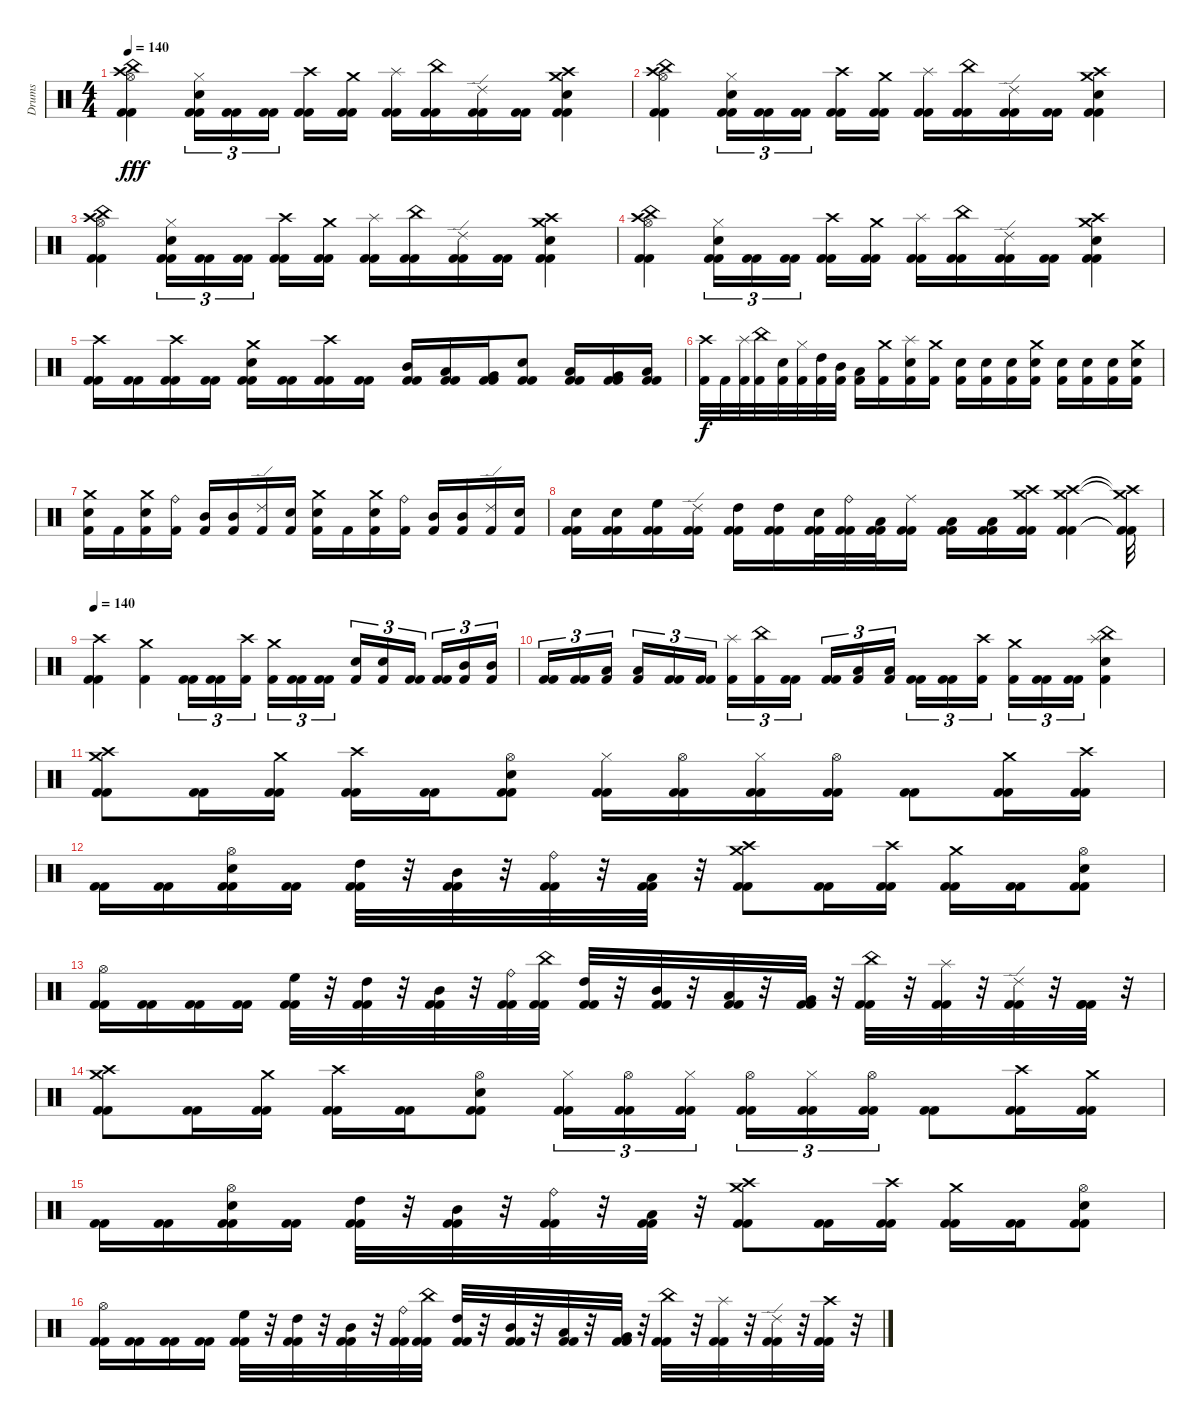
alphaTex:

\track ("Drums" "Drums") {instrument percussion}
\staff {score}
\articulation defaults
\ts (4 4)
\tempo 140
\clef neutral
\ks c
("China (hit)" "Crash high (hit)" "Hi-Hat (open)" "Kick (hit) 2" "Kick (hit) 2").4{dy fff} ("Electric Snare (hit)" "Hi-Hat (closed)" "Kick (hit) 2" "Kick (hit) 2").16{tu (3 2)} ("Kick (hit) 2" "Kick (hit) 2").16{tu (3 2)} ("Kick (hit) 2" "Kick (hit) 2").16{tu (3 2)} ("Crash high (hit)" "Kick (hit) 2" "Kick (hit) 2").16 ("Crash medium (hit)" "Kick (hit) 2" "Kick (hit) 2").16 ("Splash (hit)" "Kick (hit) 2" "Kick (hit) 2").16 ("China (hit)" "Kick (hit) 2" "Kick (hit) 2").16 ("Ride (edge) 2" "Kick (hit) 2" "Kick (hit) 2").16 ("Kick (hit) 2" "Kick (hit) 2").16 ("Electric Snare (hit)" "Crash medium (hit)" "Crash high (hit)" "Kick (hit) 2" "Kick (hit) 2").4 |
("China (hit)" "Crash high (hit)" "Hi-Hat (open)" "Kick (hit) 2" "Kick (hit) 2").4 ("Electric Snare (hit)" "Hi-Hat (closed)" "Kick (hit) 2" "Kick (hit) 2").16{tu (3 2)} ("Kick (hit) 2" "Kick (hit) 2").16{tu (3 2)} ("Kick (hit) 2" "Kick (hit) 2").16{tu (3 2)} ("Crash high (hit)" "Kick (hit) 2" "Kick (hit) 2").16 ("Crash medium (hit)" "Kick (hit) 2" "Kick (hit) 2").16 ("Splash (hit)" "Kick (hit) 2" "Kick (hit) 2").16 ("China (hit)" "Kick (hit) 2" "Kick (hit) 2").16 ("Ride (edge) 2" "Kick (hit) 2" "Kick (hit) 2").16 ("Kick (hit) 2" "Kick (hit) 2").16 ("Electric Snare (hit)" "Crash medium (hit)" "Crash high (hit)" "Kick (hit) 2" "Kick (hit) 2").4 |
("China (hit)" "Crash high (hit)" "Hi-Hat (open)" "Kick (hit) 2" "Kick (hit) 2").4 ("Electric Snare (hit)" "Hi-Hat (closed)" "Kick (hit) 2" "Kick (hit) 2").16{tu (3 2)} ("Kick (hit) 2" "Kick (hit) 2").16{tu (3 2)} ("Kick (hit) 2" "Kick (hit) 2").16{tu (3 2)} ("Crash high (hit)" "Kick (hit) 2" "Kick (hit) 2").16 ("Crash medium (hit)" "Kick (hit) 2" "Kick (hit) 2").16 ("Splash (hit)" "Kick (hit) 2" "Kick (hit) 2").16 ("China (hit)" "Kick (hit) 2" "Kick (hit) 2").16 ("Ride (edge) 2" "Kick (hit) 2" "Kick (hit) 2").16 ("Kick (hit) 2" "Kick (hit) 2").16 ("Electric Snare (hit)" "Crash medium (hit)" "Crash high (hit)" "Kick (hit) 2" "Kick (hit) 2").4 |
("China (hit)" "Crash high (hit)" "Hi-Hat (open)" "Kick (hit) 2" "Kick (hit) 2").4 ("Electric Snare (hit)" "Hi-Hat (closed)" "Kick (hit) 2" "Kick (hit) 2").16{tu (3 2)} ("Kick (hit) 2" "Kick (hit) 2").16{tu (3 2)} ("Kick (hit) 2" "Kick (hit) 2").16{tu (3 2)} ("Crash high (hit)" "Kick (hit) 2" "Kick (hit) 2").16 ("Crash medium (hit)" "Kick (hit) 2" "Kick (hit) 2").16 ("Splash (hit)" "Kick (hit) 2" "Kick (hit) 2").16 ("China (hit)" "Kick (hit) 2" "Kick (hit) 2").16 ("Ride (edge) 2" "Kick (hit) 2" "Kick (hit) 2").16 ("Kick (hit) 2" "Kick (hit) 2").16 ("Electric Snare (hit)" "Crash medium (hit)" "Crash high (hit)" "Kick (hit) 2" "Kick (hit) 2").4 |
("Crash high (hit)" "Kick (hit) 2" "Kick (hit) 2").16 ("Kick (hit) 2" "Kick (hit) 2").16 ("Crash high (hit)" "Kick (hit) 2" "Kick (hit) 2").16 ("Kick (hit) 2" "Kick (hit) 2").16 ("Electric Snare (hit)" "Crash medium (hit)" "Kick (hit) 2" "Kick (hit) 2").16 ("Kick (hit) 2" "Kick (hit) 2").16 ("Crash high (hit)" "Kick (hit) 2" "Kick (hit) 2").16 ("Kick (hit) 2" "Kick (hit) 2").16 ("Mid Tom (hit)" "Kick (hit) 2" "Kick (hit) 2").16 ("Low Tom (hit)" "Kick (hit) 2" "Kick (hit) 2").16 ("Very Low Tom (hit)" "Kick (hit) 2" "Kick (hit) 2").16 ("Electric Snare (hit)" "Kick (hit) 2" "Kick (hit) 2").8 ("Low Tom (hit)" "Kick (hit) 2" "Kick (hit) 2").16 ("Very Low Tom (hit)" "Kick (hit) 2" "Kick (hit) 2").16 ("Low Floor Tom (hit)" "Kick (hit) 2" "Kick (hit) 2").16 |
("Kick (hit) 2" "Crash high (hit)").32{dy f} "Kick (hit) 2".32 ("Kick (hit) 2" "Splash (hit)").32 ("Kick (hit) 2" "China (hit)").32 ("Kick (hit) 2" "Electric Snare (hit)").32 ("Kick (hit) 2" "Hi-Hat (closed)").32 ("Kick (hit) 2" "High Tom (hit)").32 ("Kick (hit) 2" "Mid Tom (hit)").32 ("Kick (hit) 2" "Low Tom (hit)").16 ("Kick (hit) 2" "Crash medium (hit)").16 ("Kick (hit) 2" "Electric Snare (hit)" "Splash (hit)").16 ("Kick (hit) 2" "Crash medium (hit)").16 ("Kick (hit) 2" "Electric Snare (hit)").16 ("Kick (hit) 2" "Electric Snare (hit)").16 ("Kick (hit) 2" "Electric Snare (hit)").16 ("Kick (hit) 2" "Electric Snare (hit)" "Crash medium (hit)").16 ("Kick (hit) 2" "Electric Snare (hit)").16 ("Kick (hit) 2" "Electric Snare (hit)").16 ("Kick (hit) 2" "Electric Snare (hit)").16 ("Kick (hit) 2" "Electric Snare (hit)" "Crash medium (hit)").16 |
("Crash medium (hit)" "Electric Snare (hit)" "Kick (hit) 2").16 "Kick (hit) 2".16 ("Crash medium (hit)" "Electric Snare (hit)" "Kick (hit) 2").16 ("Ride (bell)" "Kick (hit) 2").16 ("Mid Tom (hit)" "Kick (hit) 2").16 ("Mid Tom (hit)" "Kick (hit) 2").16 ("Ride (edge) 2" "Kick (hit) 2").16 ("Electric Snare (hit)" "Kick (hit) 2").16 ("Crash medium (hit)" "Electric Snare (hit)" "Kick (hit) 2").16 "Kick (hit) 2".16 ("Crash medium (hit)" "Electric Snare (hit)" "Kick (hit) 2").16 ("Ride (bell)" "Kick (hit) 2").16 ("Mid Tom (hit)" "Kick (hit) 2").16 ("Mid Tom (hit)" "Kick (hit) 2").16 ("Ride (edge) 2" "Kick (hit) 2").16 ("Electric Snare (hit)" "Kick (hit) 2").16 |
("Electric Snare (hit)" "Kick (hit) 2" "Kick (hit) 2").16 ("Electric Snare (hit)" "Kick (hit) 2" "Kick (hit) 2").16 ("High Floor Tom (hit)" "Kick (hit) 2" "Kick (hit) 2").16 ("Ride (edge) 2" "Kick (hit) 2" "Kick (hit) 2").16 ("High Tom (hit)" "Kick (hit) 2" "Kick (hit) 2").16 ("High Tom (hit)" "Kick (hit) 2" "Kick (hit) 2").16 ("Electric Snare (hit)" "Kick (hit) 2" "Kick (hit) 2").32 ("Ride (bell)" "Kick (hit) 2" "Kick (hit) 2").32 ("Low Floor Tom (hit)" "Kick (hit) 2" "Kick (hit) 2").32 ("Ride (middle)" "Kick (hit) 2" "Kick (hit) 2").16 ("Low Floor Tom (hit)" "Kick (hit) 2" "Kick (hit) 2").16 ("Low Floor Tom (hit)" "Kick (hit) 2" "Kick (hit) 2").16 ("Crash medium (hit)" "Crash high (hit)" "Kick (hit) 2" "Kick (hit) 2").16 ("Crash medium (hit)" "Crash high (hit)" "Kick (hit) 2" "Kick (hit) 2").4 ("Crash medium (hit)"{t} "Crash high (hit)"{t} "Kick (hit) 2"{t} "Kick (hit) 2"{t}).32 |
\tempo 140
("Crash high (hit)" "Kick (hit) 2" "Kick (hit) 2").4 ("Crash medium (hit)" "Kick (hit) 2").4 ("Kick (hit) 2" "Kick (hit) 2").16{tu (3 2)} ("Kick (hit) 2" "Kick (hit) 2").16{tu (3 2)} ("Crash high (hit)" "Kick (hit) 2").16{tu (3 2)} ("Crash medium (hit)" "Kick (hit) 2").16{tu (3 2)} ("Kick (hit) 2" "Kick (hit) 2").16{tu (3 2)} ("Kick (hit) 2" "Kick (hit) 2").16{tu (3 2)} ("Electric Snare (hit)" "Kick (hit) 2").16{tu (3 2)} ("Electric Snare (hit)" "Kick (hit) 2").16{tu (3 2)} ("Kick (hit) 2" "Kick (hit) 2").16{tu (3 2)} ("Kick (hit) 2" "Kick (hit) 2").16{tu (3 2)} ("Mid Tom (hit)" "Kick (hit) 2").16{tu (3 2)} ("Mid Tom (hit)" "Kick (hit) 2").16{tu (3 2)} |
("Kick (hit) 2" "Kick (hit) 2").16{tu (3 2)} ("Kick (hit) 2" "Kick (hit) 2").16{tu (3 2)} ("Low Tom (hit)" "Kick (hit) 2").16{tu (3 2)} ("Low Tom (hit)" "Kick (hit) 2").16{tu (3 2)} ("Kick (hit) 2" "Kick (hit) 2").16{tu (3 2)} ("Kick (hit) 2" "Kick (hit) 2").16{tu (3 2)} ("Splash (hit)" "Kick (hit) 2").16{tu (3 2)} ("China (hit)" "Kick (hit) 2").16{tu (3 2)} ("Kick (hit) 2" "Kick (hit) 2").16{tu (3 2)} ("Kick (hit) 2" "Kick (hit) 2").16{tu (3 2)} ("Low Floor Tom (hit)" "Kick (hit) 2").16{tu (3 2)} ("Low Floor Tom (hit)" "Kick (hit) 2").16{tu (3 2)} ("Kick (hit) 2" "Kick (hit) 2").16{tu (3 2)} ("Kick (hit) 2" "Kick (hit) 2").16{tu (3 2)} ("Crash high (hit)" "Kick (hit) 2").16{tu (3 2)} ("Crash medium (hit)" "Kick (hit) 2").16{tu (3 2)} ("Kick (hit) 2" "Kick (hit) 2").16{tu (3 2)} ("Kick (hit) 2" "Kick (hit) 2").16{tu (3 2)} ("Splash (hit)" "China (hit)" "Electric Snare (hit)" "Kick (hit) 2").4 |
("Crash high (hit)" "Crash medium (hit)" "Kick (hit) 2" "Kick (hit) 2").8 ("Kick (hit) 2" "Kick (hit) 2").16 ("Crash medium (hit)" "Kick (hit) 2" "Kick (hit) 2").16 ("Crash high (hit)" "Kick (hit) 2" "Kick (hit) 2").16 ("Kick (hit) 2" "Kick (hit) 2").16 ("Electric Snare (hit)" "Hi-Hat (open)" "Kick (hit) 2" "Kick (hit) 2").8 ("Hi-Hat (closed)" "Kick (hit) 2" "Kick (hit) 2").16 ("Hi-Hat (open)" "Kick (hit) 2" "Kick (hit) 2").16 ("Hi-Hat (closed)" "Kick (hit) 2" "Kick (hit) 2").16 ("Hi-Hat (open)" "Kick (hit) 2" "Kick (hit) 2").16 ("Kick (hit) 2" "Kick (hit) 2").8 ("Crash medium (hit)" "Kick (hit) 2" "Kick (hit) 2").16 ("Crash high (hit)" "Kick (hit) 2" "Kick (hit) 2").16 |
("Kick (hit) 2" "Kick (hit) 2").16 ("Kick (hit) 2" "Kick (hit) 2").16 ("Electric Snare (hit)" "Hi-Hat (open)" "Kick (hit) 2" "Kick (hit) 2").16 ("Kick (hit) 2" "Kick (hit) 2").16 ("High Tom (hit)" "Kick (hit) 2" "Kick (hit) 2").32 r.32 ("Mid Tom (hit)" "Kick (hit) 2" "Kick (hit) 2").32 r.32 ("Ride (bell)" "Kick (hit) 2" "Kick (hit) 2").32 r.32 ("Low Floor Tom (hit)" "Kick (hit) 2" "Kick (hit) 2").32 r.32 ("Crash medium (hit)" "Crash high (hit)" "Kick (hit) 2" "Kick (hit) 2").8 ("Kick (hit) 2" "Kick (hit) 2").16 ("Crash high (hit)" "Kick (hit) 2" "Kick (hit) 2").16 ("Crash medium (hit)" "Kick (hit) 2" "Kick (hit) 2").16 ("Kick (hit) 2" "Kick (hit) 2").16 ("Electric Snare (hit)" "Hi-Hat (open)" "Kick (hit) 2" "Kick (hit) 2").8 |
("Hi-Hat (open)" "Kick (hit) 2" "Kick (hit) 2").16 ("Kick (hit) 2" "Kick (hit) 2").16 ("Kick (hit) 2" "Kick (hit) 2").16 ("Kick (hit) 2" "Kick (hit) 2").16 ("High Floor Tom (hit)" "Kick (hit) 2" "Kick (hit) 2").32 r.32 ("High Tom (hit)" "Kick (hit) 2" "Kick (hit) 2").32 r.32 ("Mid Tom (hit)" "Kick (hit) 2" "Kick (hit) 2").32 r.32 ("Ride (bell)" "Kick (hit) 2" "Kick (hit) 2").32 ("China (hit)" "Kick (hit) 2" "Kick (hit) 2").32 ("High Tom (hit)" "Kick (hit) 2" "Kick (hit) 2").32 r.32 ("Mid Tom (hit)" "Kick (hit) 2" "Kick (hit) 2").32 r.32 ("Low Tom (hit)" "Kick (hit) 2" "Kick (hit) 2").32 r.32 ("Very Low Tom (hit)" "Kick (hit) 2" "Kick (hit) 2").32 r.32 ("China (hit)" "Kick (hit) 2" "Kick (hit) 2").32 r.32 ("Splash (hit)" "Kick (hit) 2" "Kick (hit) 2").32 r.32 ("Ride (edge) 2" "Kick (hit) 2" "Kick (hit) 2").32 r.32 ("Kick (hit) 2" "Kick (hit) 2" "Kick (hit) 2").32 r.32 |
("Crash high (hit)" "Crash medium (hit)" "Kick (hit) 2" "Kick (hit) 2").8 ("Kick (hit) 2" "Kick (hit) 2").16 ("Crash medium (hit)" "Kick (hit) 2" "Kick (hit) 2").16 ("Crash high (hit)" "Kick (hit) 2" "Kick (hit) 2").16 ("Kick (hit) 2" "Kick (hit) 2").16 ("Electric Snare (hit)" "Hi-Hat (open)" "Kick (hit) 2" "Kick (hit) 2").8 ("Hi-Hat (closed)" "Kick (hit) 2" "Kick (hit) 2").16{tu (3 2)} ("Hi-Hat (open)" "Kick (hit) 2" "Kick (hit) 2").16{tu (3 2)} ("Hi-Hat (closed)" "Kick (hit) 2" "Kick (hit) 2").16{tu (3 2)} ("Hi-Hat (open)" "Kick (hit) 2" "Kick (hit) 2").16{tu (3 2)} ("Hi-Hat (closed)" "Kick (hit) 2" "Kick (hit) 2").16{tu (3 2)} ("Hi-Hat (open)" "Kick (hit) 2" "Kick (hit) 2").16{tu (3 2)} ("Kick (hit) 2" "Kick (hit) 2").8 ("Crash high (hit)" "Kick (hit) 2" "Kick (hit) 2").16 ("Crash medium (hit)" "Kick (hit) 2" "Kick (hit) 2").16 |
("Kick (hit) 2" "Kick (hit) 2").16 ("Kick (hit) 2" "Kick (hit) 2").16 ("Electric Snare (hit)" "Hi-Hat (open)" "Kick (hit) 2" "Kick (hit) 2").16 ("Kick (hit) 2" "Kick (hit) 2").16 ("High Tom (hit)" "Kick (hit) 2" "Kick (hit) 2").32 r.32 ("Mid Tom (hit)" "Kick (hit) 2" "Kick (hit) 2").32 r.32 ("Ride (bell)" "Kick (hit) 2" "Kick (hit) 2").32 r.32 ("Low Floor Tom (hit)" "Kick (hit) 2" "Kick (hit) 2").32 r.32 ("Crash medium (hit)" "Crash high (hit)" "Kick (hit) 2" "Kick (hit) 2").8 ("Kick (hit) 2" "Kick (hit) 2").16 ("Crash high (hit)" "Kick (hit) 2" "Kick (hit) 2").16 ("Crash medium (hit)" "Kick (hit) 2" "Kick (hit) 2").16 ("Kick (hit) 2" "Kick (hit) 2").16 ("Electric Snare (hit)" "Hi-Hat (open)" "Kick (hit) 2" "Kick (hit) 2").8 |
("Hi-Hat (open)" "Kick (hit) 2" "Kick (hit) 2").16 ("Kick (hit) 2" "Kick (hit) 2").16 ("Kick (hit) 2" "Kick (hit) 2").16 ("Kick (hit) 2" "Kick (hit) 2").16 ("High Floor Tom (hit)" "Kick (hit) 2" "Kick (hit) 2").32 r.32 ("High Tom (hit)" "Kick (hit) 2" "Kick (hit) 2").32 r.32 ("Mid Tom (hit)" "Kick (hit) 2" "Kick (hit) 2").32 r.32 ("Ride (bell)" "Kick (hit) 2" "Kick (hit) 2").32 ("China (hit)" "Kick (hit) 2" "Kick (hit) 2").32 ("High Tom (hit)" "Kick (hit) 2" "Kick (hit) 2").32 r.32 ("Mid Tom (hit)" "Kick (hit) 2" "Kick (hit) 2").32 r.32 ("Low Tom (hit)" "Kick (hit) 2" "Kick (hit) 2").32 r.32 ("Very Low Tom (hit)" "Kick (hit) 2" "Kick (hit) 2").32 r.32 ("China (hit)" "Kick (hit) 2" "Kick (hit) 2").32 r.32 ("Splash (hit)" "Kick (hit) 2" "Kick (hit) 2").32 r.32 ("Ride (edge) 2" "Kick (hit) 2" "Kick (hit) 2").32 r.32 ("Crash high (hit)" "Kick (hit) 2" "Kick (hit) 2").32 r.32
